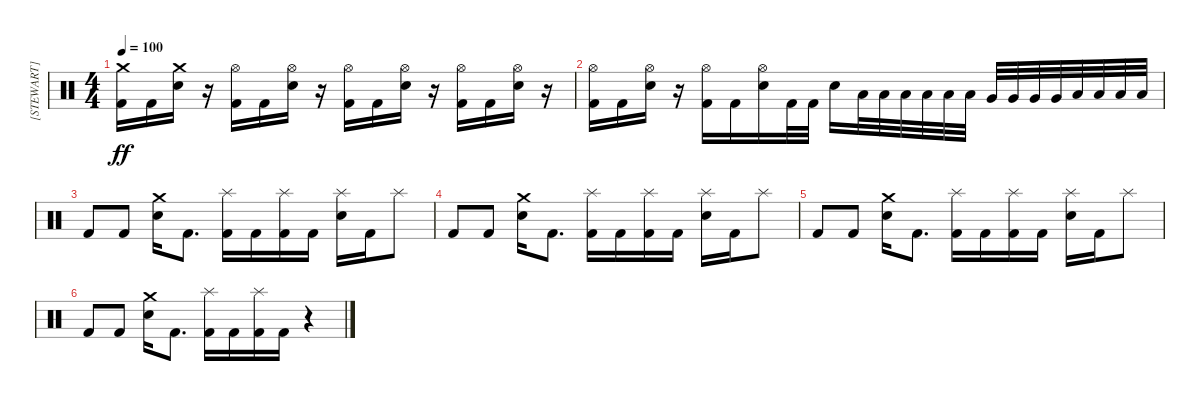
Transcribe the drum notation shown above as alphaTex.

\track ("[STEWART]" "[STEWART]") {instrument percussion}
\staff {score}
\articulation defaults
\ts (4 4)
\tempo 100
\clef neutral
\ks c
("Crash medium (hit)" "Kick (hit) 2").16{dy ff} "Kick (hit) 2".16 ("Crash medium (hit)" "Electric Snare (hit)").16 r.16 ("Hi-Hat (open)" "Kick (hit) 2").16 "Kick (hit) 2".16 ("Hi-Hat (open)" "Electric Snare (hit)").16 r.16 ("Hi-Hat (open)" "Kick (hit) 2").16 "Kick (hit) 2".16 ("Hi-Hat (open)" "Electric Snare (hit)").16 r.16 ("Hi-Hat (open)" "Kick (hit) 2").16 "Kick (hit) 2".16 ("Hi-Hat (open)" "Electric Snare (hit)").16 r.16 |
("Hi-Hat (open)" "Kick (hit) 2").16 "Kick (hit) 2".16 ("Hi-Hat (open)" "Electric Snare (hit)").16 r.16 ("Hi-Hat (open)" "Kick (hit) 2").16 "Kick (hit) 2".16 ("Hi-Hat (open)" "Electric Snare (hit)").16 "Kick (hit) 2".32 "Kick (hit) 2".32 "Electric Snare (hit)".16 "Low Tom (hit)".32 "Low Tom (hit)".32 "Low Tom (hit)".32 "Low Tom (hit)".32 "Low Tom (hit)".32 "Low Tom (hit)".32 "Very Low Tom (hit)".32 "Very Low Tom (hit)".32 "Very Low Tom (hit)".32 "Very Low Tom (hit)".32 "Low Floor Tom (hit)".32 "Low Floor Tom (hit)".32 "Low Floor Tom (hit)".32 "Low Floor Tom (hit)".32 |
"Kick (hit) 2".8 "Kick (hit) 2".8 ("Crash medium (hit)" "Electric Snare (hit)").16 "Kick (hit) 2".8{d} ("Splash (hit)" "Kick (hit) 2").16 "Kick (hit) 2".16 ("Splash (hit)" "Kick (hit) 2").16 "Kick (hit) 2".16 ("Splash (hit)" "Electric Snare (hit)").16 "Kick (hit) 2".16 "Splash (hit)".8 |
"Kick (hit) 2".8 "Kick (hit) 2".8 ("Crash medium (hit)" "Electric Snare (hit)").16 "Kick (hit) 2".8{d} ("Splash (hit)" "Kick (hit) 2").16 "Kick (hit) 2".16 ("Splash (hit)" "Kick (hit) 2").16 "Kick (hit) 2".16 ("Splash (hit)" "Electric Snare (hit)").16 "Kick (hit) 2".16 "Splash (hit)".8 |
"Kick (hit) 2".8 "Kick (hit) 2".8 ("Crash medium (hit)" "Electric Snare (hit)").16 "Kick (hit) 2".8{d} ("Splash (hit)" "Kick (hit) 2").16 "Kick (hit) 2".16 ("Splash (hit)" "Kick (hit) 2").16 "Kick (hit) 2".16 ("Splash (hit)" "Electric Snare (hit)").16 "Kick (hit) 2".16 "Splash (hit)".8 |
"Kick (hit) 2".8 "Kick (hit) 2".8 ("Crash medium (hit)" "Electric Snare (hit)").16 "Kick (hit) 2".8{d} ("Splash (hit)" "Kick (hit) 2").16 "Kick (hit) 2".16 ("Splash (hit)" "Kick (hit) 2").16 "Kick (hit) 2".16 r.4
